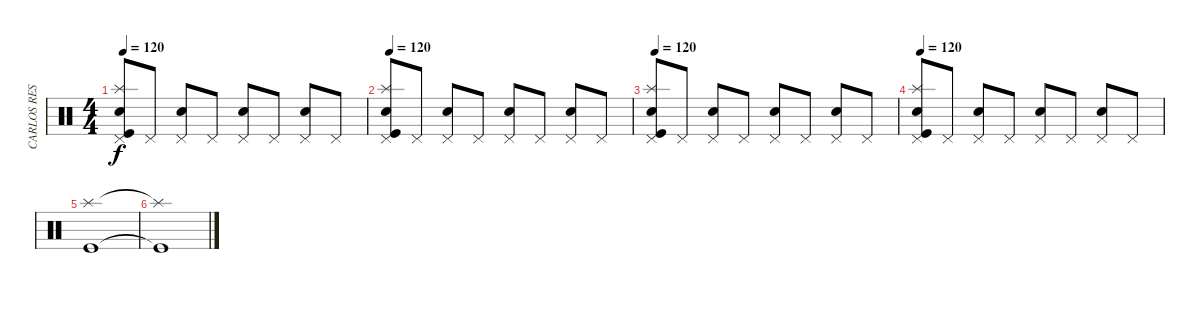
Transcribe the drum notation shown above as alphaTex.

\track ("CARLOS RESTREPO DARK BATERIA" "CARLOS RES") {instrument percussion}
\staff {score}
\articulation defaults
\ts (4 4)
\tempo 120
\clef neutral
\ks c
("Pedal Hi-Hat (hit)" "Kick (hit)" "Splash (hit)" "Snare (hit) 2").8{dy f} "Pedal Hi-Hat (hit)".8 ("Pedal Hi-Hat (hit)" "Snare (hit) 2").8 "Pedal Hi-Hat (hit)".8 ("Pedal Hi-Hat (hit)" "Snare (hit) 2").8 "Pedal Hi-Hat (hit)".8 ("Pedal Hi-Hat (hit)" "Snare (hit) 2").8 "Pedal Hi-Hat (hit)".8 |
\tempo 120
("Pedal Hi-Hat (hit)" "Kick (hit)" "Splash (hit)" "Snare (hit) 2").8 "Pedal Hi-Hat (hit)".8 ("Pedal Hi-Hat (hit)" "Snare (hit) 2").8 "Pedal Hi-Hat (hit)".8 ("Pedal Hi-Hat (hit)" "Snare (hit) 2").8 "Pedal Hi-Hat (hit)".8 ("Pedal Hi-Hat (hit)" "Snare (hit) 2").8 "Pedal Hi-Hat (hit)".8 |
\tempo 120
("Pedal Hi-Hat (hit)" "Kick (hit)" "Splash (hit)" "Snare (hit) 2").8 "Pedal Hi-Hat (hit)".8 ("Pedal Hi-Hat (hit)" "Snare (hit) 2").8 "Pedal Hi-Hat (hit)".8 ("Pedal Hi-Hat (hit)" "Snare (hit) 2").8 "Pedal Hi-Hat (hit)".8 ("Pedal Hi-Hat (hit)" "Snare (hit) 2").8 "Pedal Hi-Hat (hit)".8 |
\tempo 120
("Pedal Hi-Hat (hit)" "Kick (hit)" "Splash (hit)" "Snare (hit) 2").8 "Pedal Hi-Hat (hit)".8 ("Pedal Hi-Hat (hit)" "Snare (hit) 2").8 "Pedal Hi-Hat (hit)".8 ("Pedal Hi-Hat (hit)" "Snare (hit) 2").8 "Pedal Hi-Hat (hit)".8 ("Pedal Hi-Hat (hit)" "Snare (hit) 2").8 "Pedal Hi-Hat (hit)".8 |
("Splash (hit)" "Kick (hit)").1 |
("Splash (hit)"{t} "Kick (hit)"{t}).1
